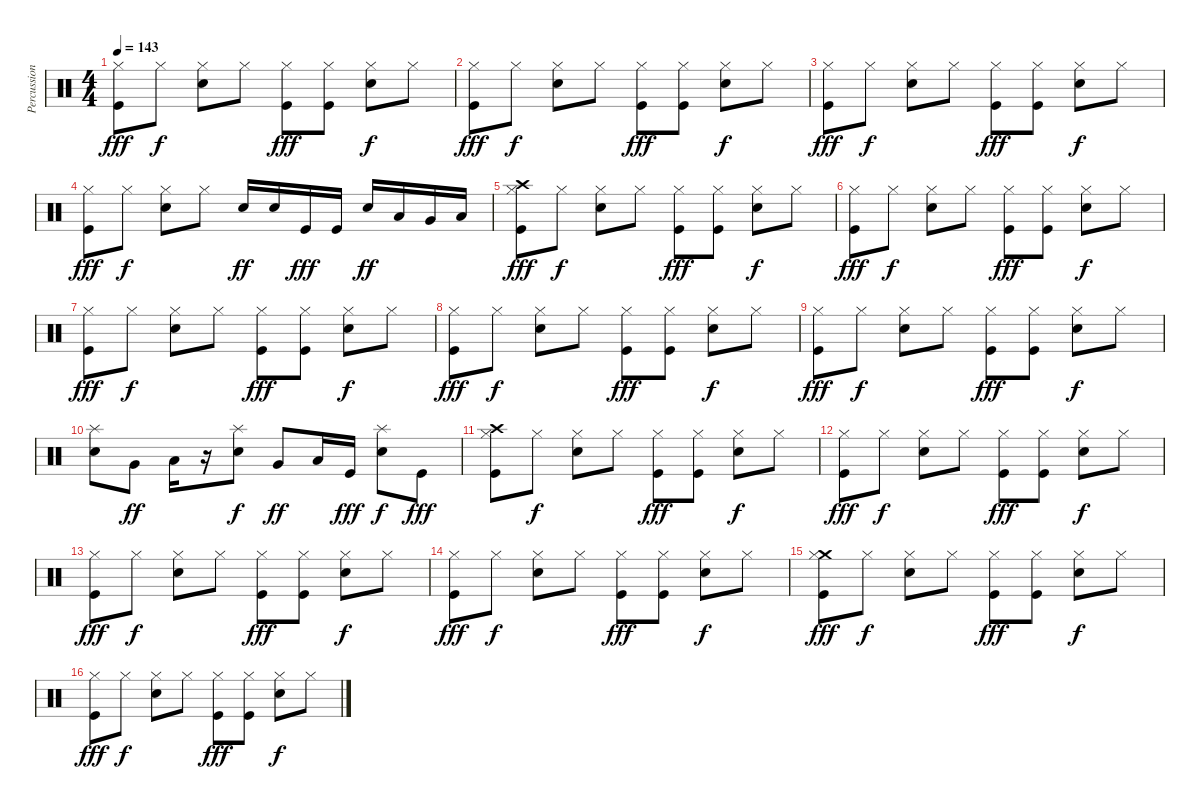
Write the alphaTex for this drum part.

\track ("Percussion" "Percussion") {instrument percussion}
\staff {score}
\articulation defaults
\ts (4 4)
\tempo 143
\clef neutral
\ks c
("Kick (hit)" "Hi-Hat (closed)").8{dy fff} "Hi-Hat (closed)".8{dy f} ("Electric Snare (hit)" "Hi-Hat (closed)").8 "Hi-Hat (closed)".8 ("Kick (hit)" "Hi-Hat (closed)").8{dy fff} ("Kick (hit)" "Hi-Hat (closed)").8 ("Electric Snare (hit)" "Hi-Hat (closed)").8{dy f} "Hi-Hat (closed)".8 |
("Kick (hit)" "Hi-Hat (closed)").8{dy fff} "Hi-Hat (closed)".8{dy f} ("Electric Snare (hit)" "Hi-Hat (closed)").8 "Hi-Hat (closed)".8 ("Kick (hit)" "Hi-Hat (closed)").8{dy fff} ("Kick (hit)" "Hi-Hat (closed)").8 ("Electric Snare (hit)" "Hi-Hat (closed)").8{dy f} "Hi-Hat (closed)".8 |
("Kick (hit)" "Hi-Hat (closed)").8{dy fff} "Hi-Hat (closed)".8{dy f} ("Electric Snare (hit)" "Hi-Hat (closed)").8 "Hi-Hat (closed)".8 ("Kick (hit)" "Hi-Hat (closed)").8{dy fff} ("Kick (hit)" "Hi-Hat (closed)").8 ("Electric Snare (hit)" "Hi-Hat (closed)").8{dy f} "Hi-Hat (closed)".8 |
("Kick (hit)" "Hi-Hat (closed)").8{dy fff} "Hi-Hat (closed)".8{dy f} ("Electric Snare (hit)" "Hi-Hat (closed)").8 "Hi-Hat (closed)".8 "Electric Snare (hit)".16{dy ff} "Electric Snare (hit)".16 "Kick (hit)".16{dy fff} "Kick (hit)".16 "Electric Snare (hit)".16{dy ff} "Low Tom (hit)".16 "Very Low Tom (hit)".16 "Low Floor Tom (hit)".16 |
("Crash high (hit)" "Kick (hit)" "Hi-Hat (closed)").8{dy fff} "Hi-Hat (closed)".8{dy f} ("Electric Snare (hit)" "Hi-Hat (closed)").8 "Hi-Hat (closed)".8 ("Kick (hit)" "Hi-Hat (closed)").8{dy fff} ("Kick (hit)" "Hi-Hat (closed)").8 ("Electric Snare (hit)" "Hi-Hat (closed)").8{dy f} "Hi-Hat (closed)".8 |
("Kick (hit)" "Hi-Hat (closed)").8{dy fff} "Hi-Hat (closed)".8{dy f} ("Electric Snare (hit)" "Hi-Hat (closed)").8 "Hi-Hat (closed)".8 ("Kick (hit)" "Hi-Hat (closed)").8{dy fff} ("Kick (hit)" "Hi-Hat (closed)").8 ("Electric Snare (hit)" "Hi-Hat (closed)").8{dy f} "Hi-Hat (closed)".8 |
("Kick (hit)" "Hi-Hat (closed)").8{dy fff} "Hi-Hat (closed)".8{dy f} ("Electric Snare (hit)" "Hi-Hat (closed)").8 "Hi-Hat (closed)".8 ("Kick (hit)" "Hi-Hat (closed)").8{dy fff} ("Kick (hit)" "Hi-Hat (closed)").8 ("Electric Snare (hit)" "Hi-Hat (closed)").8{dy f} "Hi-Hat (closed)".8 |
("Kick (hit)" "Hi-Hat (closed)").8{dy fff} "Hi-Hat (closed)".8{dy f} ("Electric Snare (hit)" "Hi-Hat (closed)").8 "Hi-Hat (closed)".8 ("Kick (hit)" "Hi-Hat (closed)").8{dy fff} ("Kick (hit)" "Hi-Hat (closed)").8 ("Electric Snare (hit)" "Hi-Hat (closed)").8{dy f} "Hi-Hat (closed)".8 |
("Kick (hit)" "Hi-Hat (closed)").8{dy fff} "Hi-Hat (closed)".8{dy f} ("Electric Snare (hit)" "Hi-Hat (closed)").8 "Hi-Hat (closed)".8 ("Kick (hit)" "Hi-Hat (closed)").8{dy fff} ("Kick (hit)" "Hi-Hat (closed)").8 ("Electric Snare (hit)" "Hi-Hat (closed)").8{dy f} "Hi-Hat (closed)".8 |
("Splash (hit)" "Electric Snare (hit)").8 "Very Low Tom (hit)".8{dy ff} "Low Floor Tom (hit)".16 r.16 ("Splash (hit)" "Electric Snare (hit)").8{dy f} "Very Low Tom (hit)".8{dy ff} "Low Floor Tom (hit)".16 "Kick (hit)".16{dy fff} ("Splash (hit)" "Electric Snare (hit)").8{dy f} "Kick (hit)".8{dy fff} |
("Crash high (hit)" "Kick (hit)" "Hi-Hat (closed)").8 "Hi-Hat (closed)".8{dy f} ("Electric Snare (hit)" "Hi-Hat (closed)").8 "Hi-Hat (closed)".8 ("Kick (hit)" "Hi-Hat (closed)").8{dy fff} ("Kick (hit)" "Hi-Hat (closed)").8 ("Electric Snare (hit)" "Hi-Hat (closed)").8{dy f} "Hi-Hat (closed)".8 |
("Kick (hit)" "Hi-Hat (closed)").8{dy fff} "Hi-Hat (closed)".8{dy f} ("Electric Snare (hit)" "Hi-Hat (closed)").8 "Hi-Hat (closed)".8 ("Kick (hit)" "Hi-Hat (closed)").8{dy fff} ("Kick (hit)" "Hi-Hat (closed)").8 ("Electric Snare (hit)" "Hi-Hat (closed)").8{dy f} "Hi-Hat (closed)".8 |
("Kick (hit)" "Hi-Hat (closed)").8{dy fff} "Hi-Hat (closed)".8{dy f} ("Electric Snare (hit)" "Hi-Hat (closed)").8 "Hi-Hat (closed)".8 ("Kick (hit)" "Hi-Hat (closed)").8{dy fff} ("Kick (hit)" "Hi-Hat (closed)").8 ("Electric Snare (hit)" "Hi-Hat (closed)").8{dy f} "Hi-Hat (closed)".8 |
("Kick (hit)" "Hi-Hat (closed)").8{dy fff} "Hi-Hat (closed)".8{dy f} ("Electric Snare (hit)" "Hi-Hat (closed)").8 "Hi-Hat (closed)".8 ("Kick (hit)" "Hi-Hat (closed)").8{dy fff} ("Kick (hit)" "Hi-Hat (closed)").8 ("Electric Snare (hit)" "Hi-Hat (closed)").8{dy f} "Hi-Hat (closed)".8 |
("Crash medium (hit)" "Kick (hit)" "Hi-Hat (closed)").8{dy fff} "Hi-Hat (closed)".8{dy f} ("Electric Snare (hit)" "Hi-Hat (closed)").8 "Hi-Hat (closed)".8 ("Kick (hit)" "Hi-Hat (closed)").8{dy fff} ("Kick (hit)" "Hi-Hat (closed)").8 ("Electric Snare (hit)" "Hi-Hat (closed)").8{dy f} "Hi-Hat (closed)".8 |
("Kick (hit)" "Hi-Hat (closed)").8{dy fff} "Hi-Hat (closed)".8{dy f} ("Electric Snare (hit)" "Hi-Hat (closed)").8 "Hi-Hat (closed)".8 ("Kick (hit)" "Hi-Hat (closed)").8{dy fff} ("Kick (hit)" "Hi-Hat (closed)").8 ("Electric Snare (hit)" "Hi-Hat (closed)").8{dy f} "Hi-Hat (closed)".8
